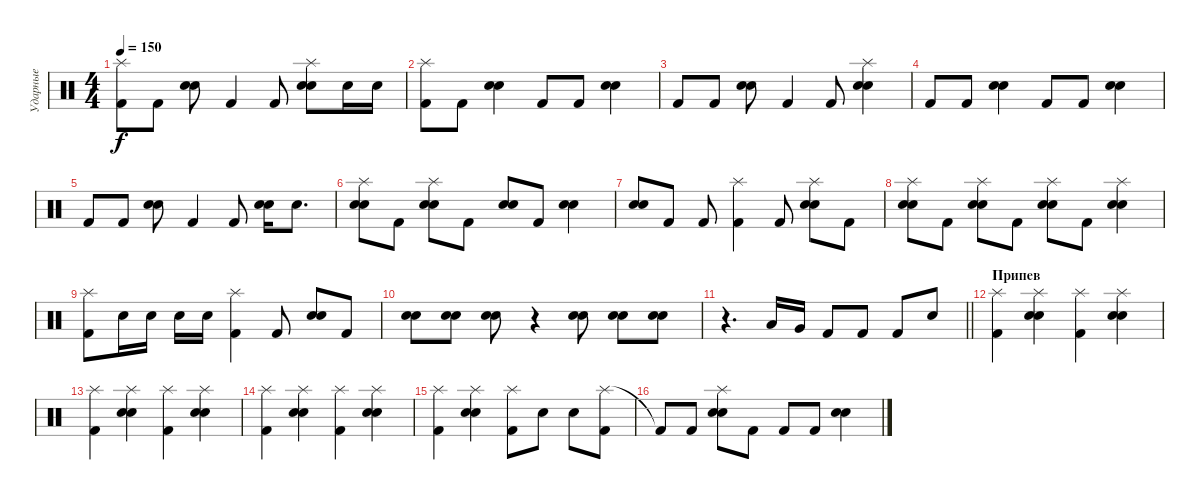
\track ("Ударные" "Ударные") {instrument percussion}
\staff {score}
\articulation defaults
\ts (4 4)
\tempo 150
\clef neutral
\ks c
("Splash (hit)" "Kick (hit) 2").8{dy f} "Kick (hit) 2".8 ("Electric Snare (hit)" "Snare (hit) 2").8 "Kick (hit) 2".4 "Kick (hit) 2".8 ("Splash (hit)" "Electric Snare (hit)" "Snare (hit) 2").8 "Electric Snare (hit)".16 "Electric Snare (hit)".16 |
("Splash (hit)" "Kick (hit) 2").8 "Kick (hit) 2".8 ("Electric Snare (hit)" "Snare (hit) 2").4 "Kick (hit) 2".8 "Kick (hit) 2".8 ("Electric Snare (hit)" "Snare (hit) 2").4 |
"Kick (hit) 2".8 "Kick (hit) 2".8 ("Electric Snare (hit)" "Snare (hit) 2").8 "Kick (hit) 2".4 "Kick (hit) 2".8 ("Splash (hit)" "Electric Snare (hit)" "Snare (hit) 2").4 |
"Kick (hit) 2".8 "Kick (hit) 2".8 ("Electric Snare (hit)" "Snare (hit) 2").4 "Kick (hit) 2".8 "Kick (hit) 2".8 ("Electric Snare (hit)" "Snare (hit) 2").4 |
"Kick (hit) 2".8 "Kick (hit) 2".8 ("Electric Snare (hit)" "Snare (hit) 2").8 "Kick (hit) 2".4 "Kick (hit) 2".8 ("Electric Snare (hit)" "Snare (hit) 2").16 "Electric Snare (hit)".8{d} |
("Splash (hit)" "Electric Snare (hit)" "Snare (hit) 2").8 "Kick (hit) 2".8 ("Splash (hit)" "Electric Snare (hit)" "Snare (hit) 2").8 "Kick (hit) 2".8 ("Electric Snare (hit)" "Snare (hit) 2").8 "Kick (hit) 2".8 ("Electric Snare (hit)" "Snare (hit) 2").4 |
("Electric Snare (hit)" "Snare (hit) 2").8 "Kick (hit) 2".8 "Kick (hit) 2".8 ("Splash (hit)" "Kick (hit) 2").4 "Kick (hit) 2".8 ("Splash (hit)" "Electric Snare (hit)" "Snare (hit) 2").8 "Kick (hit) 2".8 |
("Splash (hit)" "Electric Snare (hit)" "Snare (hit) 2").8 "Kick (hit) 2".8 ("Splash (hit)" "Electric Snare (hit)" "Snare (hit) 2").8 "Kick (hit) 2".8 ("Splash (hit)" "Electric Snare (hit)" "Snare (hit) 2").8 "Kick (hit) 2".8 ("Splash (hit)" "Electric Snare (hit)" "Snare (hit) 2").4 |
("Splash (hit)" "Kick (hit) 2").8 "Electric Snare (hit)".16 "Electric Snare (hit)".16 "Electric Snare (hit)".16 "Electric Snare (hit)".16 ("Splash (hit)" "Kick (hit) 2").4 "Kick (hit) 2".8 ("Electric Snare (hit)" "Snare (hit) 2").8 "Kick (hit) 2".8 |
("Electric Snare (hit)" "Snare (hit) 2").8 ("Electric Snare (hit)" "Snare (hit) 2").8 ("Electric Snare (hit)" "Snare (hit) 2").8 r.4 ("Electric Snare (hit)" "Snare (hit) 2").8 ("Electric Snare (hit)" "Snare (hit) 2").8 ("Electric Snare (hit)" "Snare (hit) 2").8 |
\barLineRight lightlight
r.4{d} "Low Tom (hit)".16 "Very Low Tom (hit)".16 "Kick (hit) 2".8 "Kick (hit) 2".8 "Kick (hit) 2".8 "Electric Snare (hit)".8 |
\section ("" "Припев")
("Splash (hit)" "Kick (hit) 2").4 ("Splash (hit)" "Electric Snare (hit)" "Snare (hit) 2").4 ("Splash (hit)" "Kick (hit) 2").4 ("Splash (hit)" "Electric Snare (hit)" "Snare (hit) 2").4 |
("Splash (hit)" "Kick (hit) 2").4 ("Splash (hit)" "Electric Snare (hit)" "Snare (hit) 2").4 ("Splash (hit)" "Kick (hit) 2").4 ("Splash (hit)" "Electric Snare (hit)" "Snare (hit) 2").4 |
("Splash (hit)" "Kick (hit) 2").4 ("Splash (hit)" "Electric Snare (hit)" "Snare (hit) 2").4 ("Splash (hit)" "Kick (hit) 2").4 ("Splash (hit)" "Electric Snare (hit)" "Snare (hit) 2").4 |
("Splash (hit)" "Kick (hit) 2").4 ("Splash (hit)" "Electric Snare (hit)" "Snare (hit) 2").4 ("Splash (hit)" "Kick (hit) 2").8 "Electric Snare (hit)".8 "Electric Snare (hit)".8 ("Splash (hit)" "Kick (hit) 2").8 |
"Kick (hit) 2"{t}.8 "Kick (hit) 2".8 ("Splash (hit)" "Electric Snare (hit)" "Snare (hit) 2").8 "Kick (hit) 2".8 "Kick (hit) 2".8 "Kick (hit) 2".8 ("Electric Snare (hit)" "Snare (hit) 2").4
